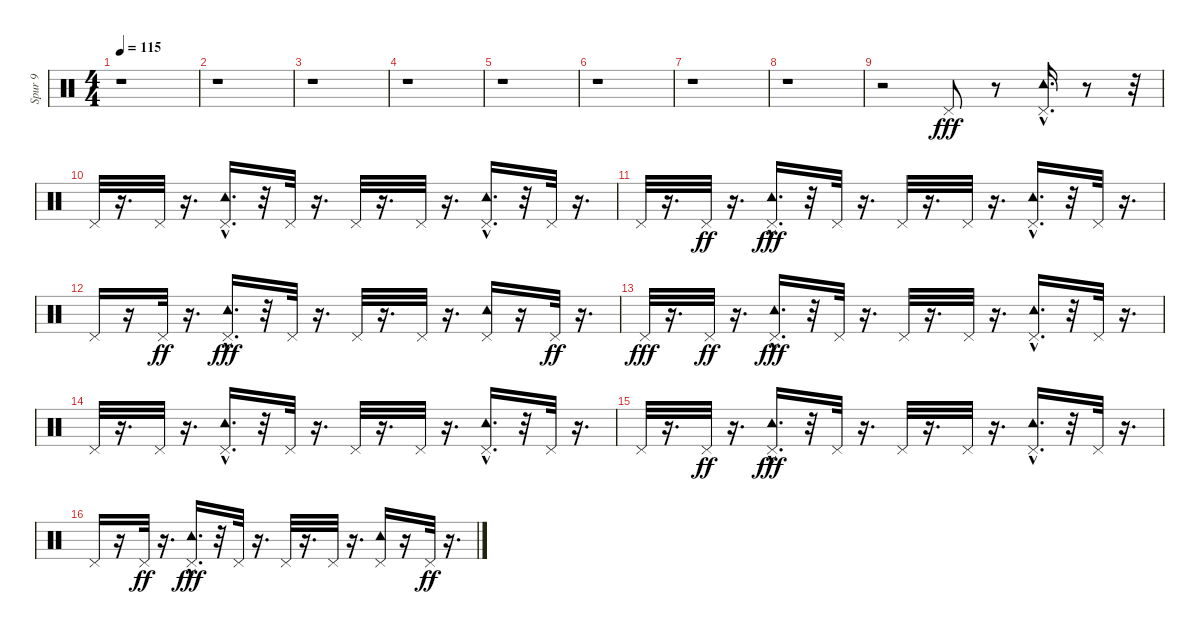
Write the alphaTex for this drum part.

\track ("Spur 9" "Spur 9") {instrument percussion}
\staff {score}
\articulation defaults
\ts (4 4)
\tempo 115
\clef neutral
\ks c
r.1{dy fff} |
r.1 |
r.1 |
r.1 |
r.1 |
r.1 |
r.1 |
r.1 |
r.2 "Pedal Hi-Hat (hit)".8 r.8 ("Pedal Hi-Hat (hit)" "Tambourine (hit)"{hac}).16{d} r.8 r.32 |
"Pedal Hi-Hat (hit)".32 r.16{d} "Pedal Hi-Hat (hit)".32 r.16{d} ("Pedal Hi-Hat (hit)" "Tambourine (hit)"{hac}).16{d} r.32 "Pedal Hi-Hat (hit)".32 r.16{d} "Pedal Hi-Hat (hit)".32 r.16{d} "Pedal Hi-Hat (hit)".32 r.16{d} ("Pedal Hi-Hat (hit)" "Tambourine (hit)"{hac}).16{d} r.32 "Pedal Hi-Hat (hit)".32 r.16{d} |
"Pedal Hi-Hat (hit)".32 r.16{d} "Pedal Hi-Hat (hit)".32{dy ff} r.16{d} ("Tambourine (hit)"{hac} "Pedal Hi-Hat (hit)").16{d dy fff} r.32 "Pedal Hi-Hat (hit)".32 r.16{d} "Pedal Hi-Hat (hit)".32 r.16{d} "Pedal Hi-Hat (hit)".32 r.16{d} ("Pedal Hi-Hat (hit)" "Tambourine (hit)"{hac}).16{d} r.32 "Pedal Hi-Hat (hit)".32 r.16{d} |
"Pedal Hi-Hat (hit)".16 r.16 "Pedal Hi-Hat (hit)".32{dy ff} r.16{d} ("Tambourine (hit)"{hac} "Pedal Hi-Hat (hit)").16{d dy fff} r.32 "Pedal Hi-Hat (hit)".32 r.16{d} "Pedal Hi-Hat (hit)".32 r.16{d} "Pedal Hi-Hat (hit)".32 r.16{d} ("Pedal Hi-Hat (hit)" "Tambourine (hit)").16 r.16 "Pedal Hi-Hat (hit)".32{dy ff} r.16{d} |
"Pedal Hi-Hat (hit)".32{dy fff} r.16{d} "Pedal Hi-Hat (hit)".32{dy ff} r.16{d} ("Tambourine (hit)"{hac} "Pedal Hi-Hat (hit)").16{d dy fff} r.32 "Pedal Hi-Hat (hit)".32 r.16{d} "Pedal Hi-Hat (hit)".32 r.16{d} "Pedal Hi-Hat (hit)".32 r.16{d} ("Pedal Hi-Hat (hit)" "Tambourine (hit)"{hac}).16{d} r.32 "Pedal Hi-Hat (hit)".32 r.16{d} |
"Pedal Hi-Hat (hit)".32 r.16{d} "Pedal Hi-Hat (hit)".32 r.16{d} ("Pedal Hi-Hat (hit)" "Tambourine (hit)"{hac}).16{d} r.32 "Pedal Hi-Hat (hit)".32 r.16{d} "Pedal Hi-Hat (hit)".32 r.16{d} "Pedal Hi-Hat (hit)".32 r.16{d} ("Pedal Hi-Hat (hit)" "Tambourine (hit)"{hac}).16{d} r.32 "Pedal Hi-Hat (hit)".32 r.16{d} |
"Pedal Hi-Hat (hit)".32 r.16{d} "Pedal Hi-Hat (hit)".32{dy ff} r.16{d} ("Tambourine (hit)"{hac} "Pedal Hi-Hat (hit)").16{d dy fff} r.32 "Pedal Hi-Hat (hit)".32 r.16{d} "Pedal Hi-Hat (hit)".32 r.16{d} "Pedal Hi-Hat (hit)".32 r.16{d} ("Pedal Hi-Hat (hit)" "Tambourine (hit)"{hac}).16{d} r.32 "Pedal Hi-Hat (hit)".32 r.16{d} |
"Pedal Hi-Hat (hit)".16 r.16 "Pedal Hi-Hat (hit)".32{dy ff} r.16{d} ("Tambourine (hit)"{hac} "Pedal Hi-Hat (hit)").16{d dy fff} r.32 "Pedal Hi-Hat (hit)".32 r.16{d} "Pedal Hi-Hat (hit)".32 r.16{d} "Pedal Hi-Hat (hit)".32 r.16{d} ("Pedal Hi-Hat (hit)" "Tambourine (hit)").16 r.16 "Pedal Hi-Hat (hit)".32{dy ff} r.16{d}
